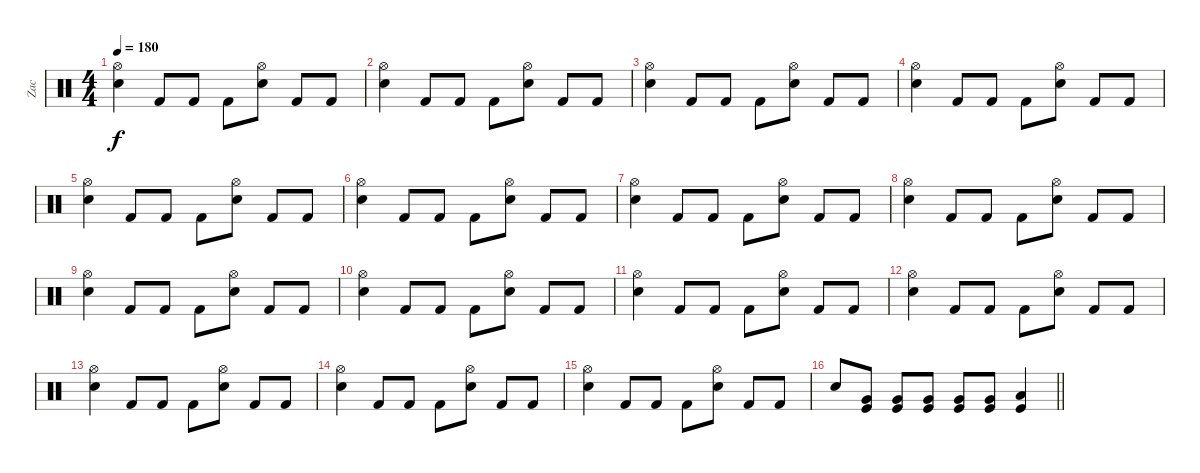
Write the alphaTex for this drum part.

\track ("Zac" "Zac") {instrument percussion}
\staff {score}
\articulation defaults
\ts (4 4)
\tempo 180
\clef neutral
\ks c
("Hi-Hat (open)" "Electric Snare (hit)").4{dy f} "Kick (hit) 2".8 "Kick (hit) 2".8 "Kick (hit) 2".8 ("Hi-Hat (open)" "Electric Snare (hit)").8 "Kick (hit) 2".8 "Kick (hit) 2".8 |
("Hi-Hat (open)" "Electric Snare (hit)").4 "Kick (hit) 2".8 "Kick (hit) 2".8 "Kick (hit) 2".8 ("Hi-Hat (open)" "Electric Snare (hit)").8 "Kick (hit) 2".8 "Kick (hit) 2".8 |
("Hi-Hat (open)" "Electric Snare (hit)").4 "Kick (hit) 2".8 "Kick (hit) 2".8 "Kick (hit) 2".8 ("Hi-Hat (open)" "Electric Snare (hit)").8 "Kick (hit) 2".8 "Kick (hit) 2".8 |
("Hi-Hat (open)" "Electric Snare (hit)").4 "Kick (hit) 2".8 "Kick (hit) 2".8 "Kick (hit) 2".8 ("Hi-Hat (open)" "Electric Snare (hit)").8 "Kick (hit) 2".8 "Kick (hit) 2".8 |
("Hi-Hat (open)" "Electric Snare (hit)").4 "Kick (hit) 2".8 "Kick (hit) 2".8 "Kick (hit) 2".8 ("Hi-Hat (open)" "Electric Snare (hit)").8 "Kick (hit) 2".8 "Kick (hit) 2".8 |
("Hi-Hat (open)" "Electric Snare (hit)").4 "Kick (hit) 2".8 "Kick (hit) 2".8 "Kick (hit) 2".8 ("Hi-Hat (open)" "Electric Snare (hit)").8 "Kick (hit) 2".8 "Kick (hit) 2".8 |
("Hi-Hat (open)" "Electric Snare (hit)").4 "Kick (hit) 2".8 "Kick (hit) 2".8 "Kick (hit) 2".8 ("Hi-Hat (open)" "Electric Snare (hit)").8 "Kick (hit) 2".8 "Kick (hit) 2".8 |
("Hi-Hat (open)" "Electric Snare (hit)").4 "Kick (hit) 2".8 "Kick (hit) 2".8 "Kick (hit) 2".8 ("Hi-Hat (open)" "Electric Snare (hit)").8 "Kick (hit) 2".8 "Kick (hit) 2".8 |
("Hi-Hat (open)" "Electric Snare (hit)").4 "Kick (hit) 2".8 "Kick (hit) 2".8 "Kick (hit) 2".8 ("Hi-Hat (open)" "Electric Snare (hit)").8 "Kick (hit) 2".8 "Kick (hit) 2".8 |
("Hi-Hat (open)" "Electric Snare (hit)").4 "Kick (hit) 2".8 "Kick (hit) 2".8 "Kick (hit) 2".8 ("Hi-Hat (open)" "Electric Snare (hit)").8 "Kick (hit) 2".8 "Kick (hit) 2".8 |
("Hi-Hat (open)" "Electric Snare (hit)").4 "Kick (hit) 2".8 "Kick (hit) 2".8 "Kick (hit) 2".8 ("Hi-Hat (open)" "Electric Snare (hit)").8 "Kick (hit) 2".8 "Kick (hit) 2".8 |
("Hi-Hat (open)" "Electric Snare (hit)").4 "Kick (hit) 2".8 "Kick (hit) 2".8 "Kick (hit) 2".8 ("Hi-Hat (open)" "Electric Snare (hit)").8 "Kick (hit) 2".8 "Kick (hit) 2".8 |
("Hi-Hat (open)" "Electric Snare (hit)").4 "Kick (hit) 2".8 "Kick (hit) 2".8 "Kick (hit) 2".8 ("Hi-Hat (open)" "Electric Snare (hit)").8 "Kick (hit) 2".8 "Kick (hit) 2".8 |
("Hi-Hat (open)" "Electric Snare (hit)").4 "Kick (hit) 2".8 "Kick (hit) 2".8 "Kick (hit) 2".8 ("Hi-Hat (open)" "Electric Snare (hit)").8 "Kick (hit) 2".8 "Kick (hit) 2".8 |
("Hi-Hat (open)" "Electric Snare (hit)").4 "Kick (hit) 2".8 "Kick (hit) 2".8 "Kick (hit) 2".8 ("Hi-Hat (open)" "Electric Snare (hit)").8 "Kick (hit) 2".8 "Kick (hit) 2".8 |
\barLineRight lightlight "Electric Snare (hit)".8
("Kick (hit)" "Very Low Tom (hit)").8 ("Kick (hit)" "Very Low Tom (hit)").8 ("Kick (hit)" "Very Low Tom (hit)").8 ("Kick (hit)" "Very Low Tom (hit)").8 ("Kick (hit)" "Very Low Tom (hit)").8 ("Low Floor Tom (hit)" "Kick (hit)").4
